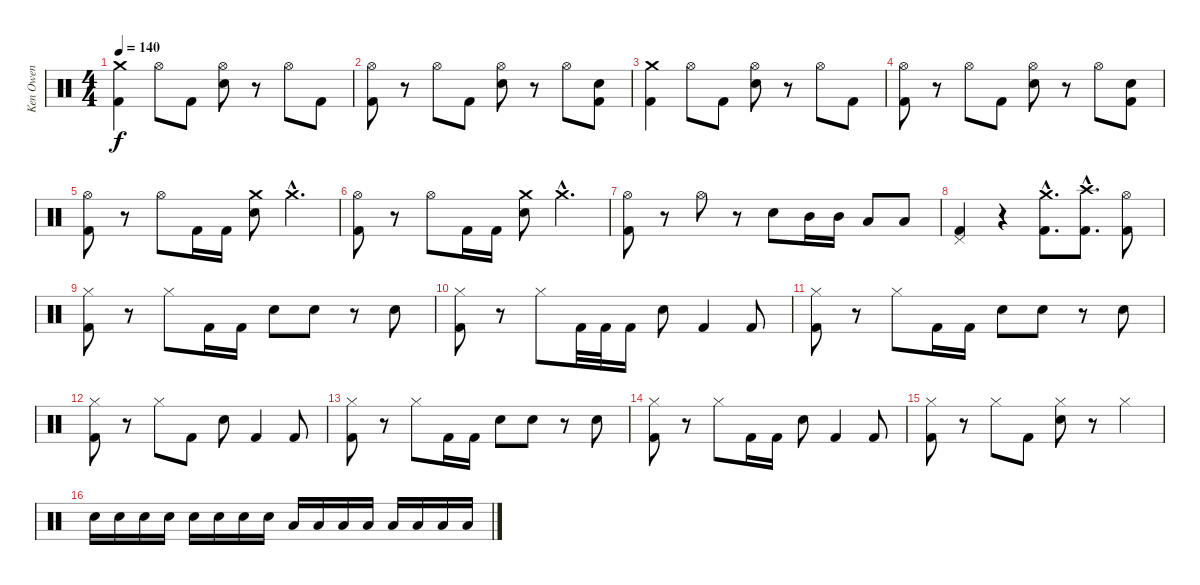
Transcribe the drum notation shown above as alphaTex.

\track ("Ken Owen" "Ken Owen") {instrument percussion}
\staff {score}
\articulation defaults
\ts (4 4)
\tempo 140
\clef neutral
\ks c
("Crash medium (hit)" "Kick (hit) 2").4{dy f} "Hi-Hat (open)".8 "Kick (hit) 2".8 ("Hi-Hat (open)" "Electric Snare (hit)").8 r.8 "Hi-Hat (open)".8 "Kick (hit) 2".8 |
("Hi-Hat (open)" "Kick (hit) 2").8 r.8 "Hi-Hat (open)".8 "Kick (hit) 2".8 ("Hi-Hat (open)" "Electric Snare (hit)").8 r.8 "Hi-Hat (open)".8 ("Electric Snare (hit)" "Kick (hit) 2").8 |
("Crash medium (hit)" "Kick (hit) 2").4 "Hi-Hat (open)".8 "Kick (hit) 2".8 ("Hi-Hat (open)" "Electric Snare (hit)").8 r.8 "Hi-Hat (open)".8 "Kick (hit) 2".8 |
("Hi-Hat (open)" "Kick (hit) 2").8 r.8 "Hi-Hat (open)".8 "Kick (hit) 2".8 ("Hi-Hat (open)" "Electric Snare (hit)").8 r.8 "Hi-Hat (open)".8 ("Electric Snare (hit)" "Kick (hit) 2").8 |
("Hi-Hat (open)" "Kick (hit) 2").8 r.8 "Hi-Hat (open)".8 "Kick (hit) 2".16 "Kick (hit) 2".16 ("Crash medium (hit)" "Electric Snare (hit)").8 "Crash medium (hit)"{hac}.4{d} |
("Hi-Hat (open)" "Kick (hit) 2").8 r.8 "Hi-Hat (open)".8 "Kick (hit) 2".16 "Kick (hit) 2".16 ("Crash medium (hit)" "Electric Snare (hit)").8 "Crash medium (hit)"{hac}.4{d} |
("Hi-Hat (open)" "Kick (hit) 2").8 r.8 "Hi-Hat (open)".8 r.8 "Electric Snare (hit)".8 "Mid Tom (hit)".16 "Mid Tom (hit)".16 "Low Floor Tom (hit)".8 "Low Floor Tom (hit)".8 |
("Pedal Hi-Hat (hit)" "Kick (hit) 2").4 r.4 ("Crash medium (hit)"{hac} "Kick (hit) 2"{hac}).8{d} ("Crash high (hit)"{hac} "Kick (hit) 2"{hac}).8{d} ("Hi-Hat (open)" "Kick (hit) 2").8 |
("Hi-Hat (closed)" "Kick (hit) 2").8 r.8 "Hi-Hat (closed)".8 "Kick (hit) 2".16 "Kick (hit) 2".16 "Electric Snare (hit)".8 "Electric Snare (hit)".8 r.8 "Electric Snare (hit)".8 |
("Hi-Hat (closed)" "Kick (hit) 2").8 r.8 "Hi-Hat (closed)".8 "Kick (hit) 2".32 "Kick (hit) 2".32 "Kick (hit) 2".16 "Electric Snare (hit)".8 "Kick (hit) 2".4 "Kick (hit) 2".8 |
("Hi-Hat (closed)" "Kick (hit) 2").8 r.8 "Hi-Hat (closed)".8 "Kick (hit) 2".16 "Kick (hit) 2".16 "Electric Snare (hit)".8 "Electric Snare (hit)".8 r.8 "Electric Snare (hit)".8 |
("Hi-Hat (closed)" "Kick (hit) 2").8 r.8 "Hi-Hat (closed)".8 "Kick (hit) 2".8 "Electric Snare (hit)".8 "Kick (hit) 2".4 "Kick (hit) 2".8 |
("Hi-Hat (closed)" "Kick (hit) 2").8 r.8 "Hi-Hat (closed)".8 "Kick (hit) 2".16 "Kick (hit) 2".16 "Electric Snare (hit)".8 "Electric Snare (hit)".8 r.8 "Electric Snare (hit)".8 |
("Hi-Hat (closed)" "Kick (hit) 2").8 r.8 "Hi-Hat (closed)".8 "Kick (hit) 2".16 "Kick (hit) 2".16 "Electric Snare (hit)".8 "Kick (hit) 2".4 "Kick (hit) 2".8 |
("Hi-Hat (closed)" "Kick (hit) 2").8 r.8 "Hi-Hat (closed)".8 "Kick (hit) 2".8 ("Hi-Hat (closed)" "Electric Snare (hit)").8 r.8 "Hi-Hat (closed)".4 |
"Electric Snare (hit)".16 "Electric Snare (hit)".16 "Electric Snare (hit)".16 "Electric Snare (hit)".16 "Electric Snare (hit)".16 "Electric Snare (hit)".16 "Electric Snare (hit)".16 "Electric Snare (hit)".16 "Low Floor Tom (hit)".16 "Low Floor Tom (hit)".16 "Low Floor Tom (hit)".16 "Low Floor Tom (hit)".16 "Low Floor Tom (hit)".16 "Low Floor Tom (hit)".16 "Low Floor Tom (hit)".16 "Low Floor Tom (hit)".16
